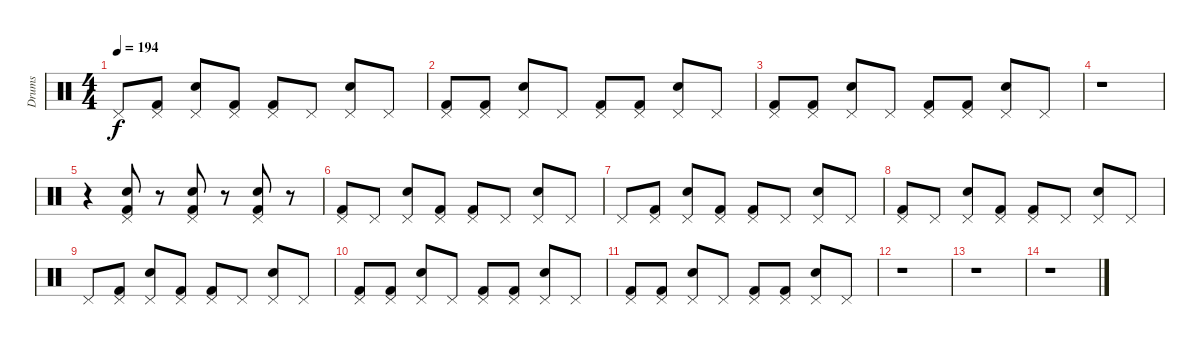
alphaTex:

\track ("Drums" "Drums") {instrument percussion}
\staff {score}
\articulation defaults
\ts (4 4)
\tempo 194
\clef neutral
\ks c "Pedal Hi-Hat (hit)".8{dy f}
("Kick (hit) 2" "Pedal Hi-Hat (hit)").8 ("Pedal Hi-Hat (hit)" "Electric Snare (hit)").8 ("Kick (hit) 2" "Pedal Hi-Hat (hit)").8 ("Kick (hit) 2" "Pedal Hi-Hat (hit)").8 "Pedal Hi-Hat (hit)".8 ("Pedal Hi-Hat (hit)" "Electric Snare (hit)").8 "Pedal Hi-Hat (hit)".8 |
("Kick (hit) 2" "Pedal Hi-Hat (hit)").8 ("Kick (hit) 2" "Pedal Hi-Hat (hit)").8 ("Electric Snare (hit)" "Pedal Hi-Hat (hit)").8 "Pedal Hi-Hat (hit)".8 ("Pedal Hi-Hat (hit)" "Kick (hit) 2").8 ("Kick (hit) 2" "Pedal Hi-Hat (hit)").8 ("Pedal Hi-Hat (hit)" "Electric Snare (hit)").8 "Pedal Hi-Hat (hit)".8 |
("Pedal Hi-Hat (hit)" "Kick (hit) 2").8 ("Pedal Hi-Hat (hit)" "Kick (hit) 2").8 ("Pedal Hi-Hat (hit)" "Electric Snare (hit)").8 "Pedal Hi-Hat (hit)".8 ("Pedal Hi-Hat (hit)" "Kick (hit) 2").8 ("Pedal Hi-Hat (hit)" "Kick (hit) 2").8 ("Electric Snare (hit)" "Pedal Hi-Hat (hit)").8 "Pedal Hi-Hat (hit)".8 |
r.1 |
r.4 ("Electric Snare (hit)" "Pedal Hi-Hat (hit)" "Kick (hit) 2").8 r.8 ("Electric Snare (hit)" "Pedal Hi-Hat (hit)" "Kick (hit) 2").8 r.8 ("Pedal Hi-Hat (hit)" "Electric Snare (hit)" "Kick (hit) 2").8 r.8 |
("Pedal Hi-Hat (hit)" "Kick (hit) 2").8 "Pedal Hi-Hat (hit)".8 ("Pedal Hi-Hat (hit)" "Electric Snare (hit)").8 ("Pedal Hi-Hat (hit)" "Kick (hit) 2").8 ("Pedal Hi-Hat (hit)" "Kick (hit) 2").8 "Pedal Hi-Hat (hit)".8 ("Pedal Hi-Hat (hit)" "Electric Snare (hit)").8 "Pedal Hi-Hat (hit)".8 |
"Pedal Hi-Hat (hit)".8 ("Pedal Hi-Hat (hit)" "Kick (hit) 2").8 ("Electric Snare (hit)" "Pedal Hi-Hat (hit)").8 ("Pedal Hi-Hat (hit)" "Kick (hit) 2").8 ("Kick (hit) 2" "Pedal Hi-Hat (hit)").8 "Pedal Hi-Hat (hit)".8 ("Pedal Hi-Hat (hit)" "Electric Snare (hit)").8 "Pedal Hi-Hat (hit)".8 |
("Kick (hit) 2" "Pedal Hi-Hat (hit)").8 "Pedal Hi-Hat (hit)".8 ("Pedal Hi-Hat (hit)" "Electric Snare (hit)").8 ("Kick (hit) 2" "Pedal Hi-Hat (hit)").8 ("Kick (hit) 2" "Pedal Hi-Hat (hit)").8 "Pedal Hi-Hat (hit)".8 ("Electric Snare (hit)" "Pedal Hi-Hat (hit)").8 "Pedal Hi-Hat (hit)".8 |
"Pedal Hi-Hat (hit)".8 ("Kick (hit) 2" "Pedal Hi-Hat (hit)").8 ("Electric Snare (hit)" "Pedal Hi-Hat (hit)").8 ("Kick (hit) 2" "Pedal Hi-Hat (hit)").8 ("Kick (hit) 2" "Pedal Hi-Hat (hit)").8 "Pedal Hi-Hat (hit)".8 ("Electric Snare (hit)" "Pedal Hi-Hat (hit)").8 "Pedal Hi-Hat (hit)".8 |
("Kick (hit) 2" "Pedal Hi-Hat (hit)").8 ("Kick (hit) 2" "Pedal Hi-Hat (hit)").8 ("Electric Snare (hit)" "Pedal Hi-Hat (hit)").8 "Pedal Hi-Hat (hit)".8 ("Pedal Hi-Hat (hit)" "Kick (hit) 2").8 ("Kick (hit) 2" "Pedal Hi-Hat (hit)").8 ("Pedal Hi-Hat (hit)" "Electric Snare (hit)").8 "Pedal Hi-Hat (hit)".8 |
("Pedal Hi-Hat (hit)" "Kick (hit) 2").8 ("Pedal Hi-Hat (hit)" "Kick (hit) 2").8 ("Pedal Hi-Hat (hit)" "Electric Snare (hit)").8 "Pedal Hi-Hat (hit)".8 ("Pedal Hi-Hat (hit)" "Kick (hit) 2").8 ("Pedal Hi-Hat (hit)" "Kick (hit) 2").8 ("Electric Snare (hit)" "Pedal Hi-Hat (hit)").8 "Pedal Hi-Hat (hit)".8 |
r.1 |
r.1 |
r.1
